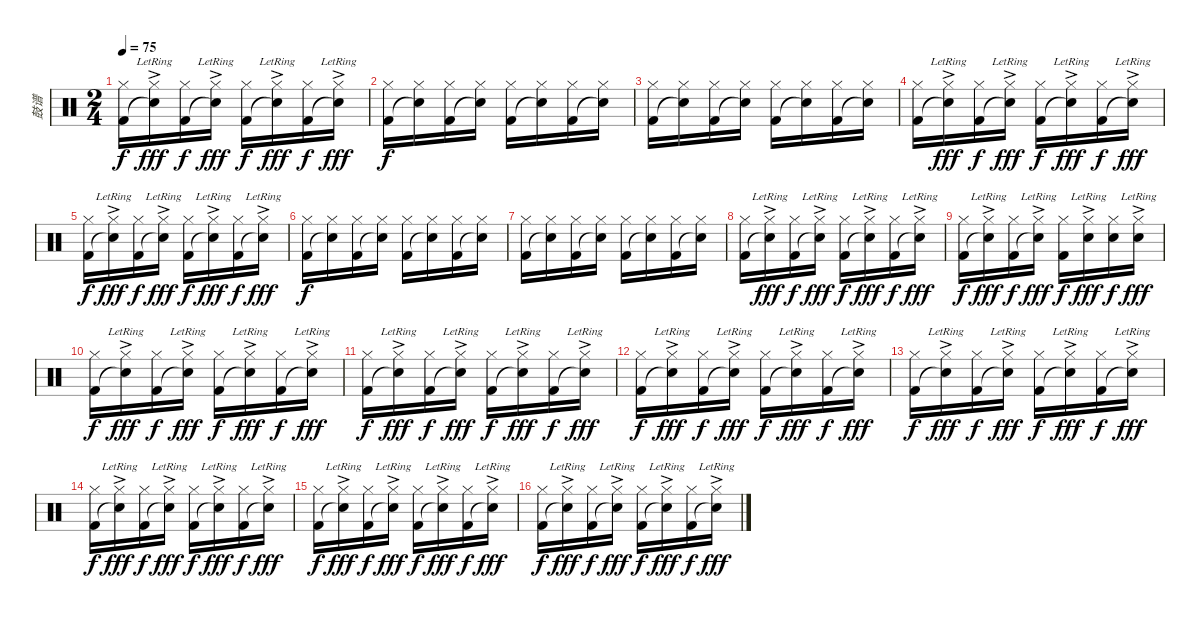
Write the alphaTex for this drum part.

\track ("鼓谱" "鼓谱") {instrument percussion}
\staff {score}
\articulation defaults
\ts (2 4)
\tempo 75
\clef neutral
\ks c
("Kick (hit) 2" "Hi-Hat (closed)").16{dy f} ("Snare (hit)"{t} "Hi-Hat (closed)"{ac lr}).16{dy fff} ("Kick (hit) 2" "Hi-Hat (closed)").16{dy f} ("Snare (hit)"{t} "Hi-Hat (closed)"{ac lr}).16{dy fff} ("Kick (hit) 2" "Hi-Hat (closed)").16{dy f} ("Snare (hit)"{t} "Hi-Hat (closed)"{ac lr}).16{dy fff} ("Kick (hit) 2" "Hi-Hat (closed)").16{dy f} ("Snare (hit)"{t} "Hi-Hat (closed)"{ac lr}).16{dy fff} |
("Kick (hit) 2" "Hi-Hat (closed)").16{dy f volume 12} ("Snare (hit)"{t} "Hi-Hat (closed)").16 ("Kick (hit) 2" "Hi-Hat (closed)").16 ("Snare (hit)"{t} "Hi-Hat (closed)").16 ("Kick (hit) 2" "Hi-Hat (closed)").16 ("Snare (hit)"{t} "Hi-Hat (closed)").16 ("Kick (hit) 2" "Hi-Hat (closed)").16 ("Snare (hit)"{t} "Hi-Hat (closed)").16 |
("Kick (hit) 2" "Hi-Hat (closed)").16 ("Snare (hit)"{t} "Hi-Hat (closed)").16 ("Kick (hit) 2" "Hi-Hat (closed)").16 ("Snare (hit)"{t} "Hi-Hat (closed)").16 ("Kick (hit) 2" "Hi-Hat (closed)").16 ("Snare (hit)"{t} "Hi-Hat (closed)").16 ("Kick (hit) 2" "Hi-Hat (closed)").16 ("Snare (hit)"{t} "Hi-Hat (closed)").16 |
("Kick (hit) 2" "Hi-Hat (closed)").16 ("Snare (hit)"{t} "Hi-Hat (closed)"{ac lr}).16{dy fff} ("Kick (hit) 2" "Hi-Hat (closed)").16{dy f} ("Snare (hit)"{t} "Hi-Hat (closed)"{ac lr}).16{dy fff} ("Kick (hit) 2" "Hi-Hat (closed)").16{dy f} ("Snare (hit)"{t} "Hi-Hat (closed)"{ac lr}).16{dy fff} ("Kick (hit) 2" "Hi-Hat (closed)").16{dy f} ("Snare (hit)"{t} "Hi-Hat (closed)"{ac lr}).16{dy fff} |
("Kick (hit) 2" "Hi-Hat (closed)").16{dy f} ("Snare (hit)"{t} "Hi-Hat (closed)"{ac lr}).16{dy fff} ("Kick (hit) 2" "Hi-Hat (closed)").16{dy f} ("Snare (hit)"{t} "Hi-Hat (closed)"{ac lr}).16{dy fff} ("Kick (hit) 2" "Hi-Hat (closed)").16{dy f} ("Snare (hit)"{t} "Hi-Hat (closed)"{ac lr}).16{dy fff} ("Kick (hit) 2" "Hi-Hat (closed)").16{dy f} ("Snare (hit)"{t} "Hi-Hat (closed)"{ac lr}).16{dy fff} |
("Kick (hit) 2" "Hi-Hat (closed)").16{dy f volume 12} ("Snare (hit)"{t} "Hi-Hat (closed)").16 ("Kick (hit) 2" "Hi-Hat (closed)").16 ("Snare (hit)"{t} "Hi-Hat (closed)").16 ("Kick (hit) 2" "Hi-Hat (closed)").16 ("Snare (hit)"{t} "Hi-Hat (closed)").16 ("Kick (hit) 2" "Hi-Hat (closed)").16 ("Snare (hit)"{t} "Hi-Hat (closed)").16 |
("Kick (hit) 2" "Hi-Hat (closed)").16 ("Snare (hit)"{t} "Hi-Hat (closed)").16 ("Kick (hit) 2" "Hi-Hat (closed)").16 ("Snare (hit)"{t} "Hi-Hat (closed)").16 ("Kick (hit) 2" "Hi-Hat (closed)").16 ("Snare (hit)"{t} "Hi-Hat (closed)").16 ("Kick (hit) 2" "Hi-Hat (closed)").16 ("Snare (hit)"{t} "Hi-Hat (closed)").16 |
("Kick (hit) 2" "Hi-Hat (closed)").16 ("Snare (hit)"{t} "Hi-Hat (closed)"{ac lr}).16{dy fff} ("Kick (hit) 2" "Hi-Hat (closed)").16{dy f} ("Snare (hit)"{t} "Hi-Hat (closed)"{ac lr}).16{dy fff} ("Kick (hit) 2" "Hi-Hat (closed)").16{dy f} ("Snare (hit)"{t} "Hi-Hat (closed)"{ac lr}).16{dy fff} ("Kick (hit) 2" "Hi-Hat (closed)").16{dy f} ("Snare (hit)"{t} "Hi-Hat (closed)"{ac lr}).16{dy fff} |
("Kick (hit) 2" "Hi-Hat (closed)").16{dy f} ("Snare (hit)"{t} "Hi-Hat (closed)"{ac lr}).16{dy fff} ("Kick (hit) 2" "Hi-Hat (closed)").16{dy f} ("Snare (hit)"{t} "Hi-Hat (closed)"{ac lr}).16{dy fff} ("Kick (hit) 2" "Hi-Hat (closed)").16{dy f} ("Electric Snare (hit)" "Hi-Hat (closed)"{ac lr}).16{dy fff} ("Electric Snare (hit)" "Hi-Hat (closed)").16{dy f volume 14} ("Electric Snare (hit)" "Hi-Hat (closed)"{ac lr}).16{dy fff volume 16} |
("Kick (hit) 2" "Hi-Hat (closed)").16{dy f} ("Snare (hit)"{t} "Hi-Hat (closed)"{ac lr}).16{dy fff} ("Kick (hit) 2" "Hi-Hat (closed)").16{dy f} ("Snare (hit)"{t} "Hi-Hat (closed)"{ac lr}).16{dy fff} ("Kick (hit) 2" "Hi-Hat (closed)").16{dy f} ("Snare (hit)"{t} "Hi-Hat (closed)"{ac lr}).16{dy fff} ("Kick (hit) 2" "Hi-Hat (closed)").16{dy f} ("Snare (hit)"{t} "Hi-Hat (closed)"{ac lr}).16{dy fff} |
("Kick (hit) 2" "Hi-Hat (closed)").16{dy f} ("Snare (hit)"{t} "Hi-Hat (closed)"{ac lr}).16{dy fff} ("Kick (hit) 2" "Hi-Hat (closed)").16{dy f} ("Snare (hit)"{t} "Hi-Hat (closed)"{ac lr}).16{dy fff} ("Kick (hit) 2" "Hi-Hat (closed)").16{dy f} ("Snare (hit)"{t} "Hi-Hat (closed)"{ac lr}).16{dy fff} ("Kick (hit) 2" "Hi-Hat (closed)").16{dy f} ("Snare (hit)"{t} "Hi-Hat (closed)"{ac lr}).16{dy fff} |
("Kick (hit) 2" "Hi-Hat (closed)").16{dy f} ("Snare (hit)"{t} "Hi-Hat (closed)"{ac lr}).16{dy fff} ("Kick (hit) 2" "Hi-Hat (closed)").16{dy f} ("Snare (hit)"{t} "Hi-Hat (closed)"{ac lr}).16{dy fff} ("Kick (hit) 2" "Hi-Hat (closed)").16{dy f} ("Snare (hit)"{t} "Hi-Hat (closed)"{ac lr}).16{dy fff} ("Kick (hit) 2" "Hi-Hat (closed)").16{dy f} ("Snare (hit)"{t} "Hi-Hat (closed)"{ac lr}).16{dy fff} |
("Kick (hit) 2" "Hi-Hat (closed)").16{dy f} ("Snare (hit)"{t} "Hi-Hat (closed)"{ac lr}).16{dy fff} ("Kick (hit) 2" "Hi-Hat (closed)").16{dy f} ("Snare (hit)"{t} "Hi-Hat (closed)"{ac lr}).16{dy fff} ("Kick (hit) 2" "Hi-Hat (closed)").16{dy f} ("Snare (hit)"{t} "Hi-Hat (closed)"{ac lr}).16{dy fff} ("Kick (hit) 2" "Hi-Hat (closed)").16{dy f} ("Snare (hit)"{t} "Hi-Hat (closed)"{ac lr}).16{dy fff} |
("Kick (hit) 2" "Hi-Hat (closed)").16{dy f} ("Snare (hit)"{t} "Hi-Hat (closed)"{ac lr}).16{dy fff} ("Kick (hit) 2" "Hi-Hat (closed)").16{dy f} ("Snare (hit)"{t} "Hi-Hat (closed)"{ac lr}).16{dy fff} ("Kick (hit) 2" "Hi-Hat (closed)").16{dy f} ("Snare (hit)"{t} "Hi-Hat (closed)"{ac lr}).16{dy fff} ("Kick (hit) 2" "Hi-Hat (closed)").16{dy f} ("Snare (hit)"{t} "Hi-Hat (closed)"{ac lr}).16{dy fff} |
("Kick (hit) 2" "Hi-Hat (closed)").16{dy f} ("Snare (hit)"{t} "Hi-Hat (closed)"{ac lr}).16{dy fff} ("Kick (hit) 2" "Hi-Hat (closed)").16{dy f} ("Snare (hit)"{t} "Hi-Hat (closed)"{ac lr}).16{dy fff} ("Kick (hit) 2" "Hi-Hat (closed)").16{dy f} ("Snare (hit)"{t} "Hi-Hat (closed)"{ac lr}).16{dy fff} ("Kick (hit) 2" "Hi-Hat (closed)").16{dy f} ("Snare (hit)"{t} "Hi-Hat (closed)"{ac lr}).16{dy fff} |
("Kick (hit) 2" "Hi-Hat (closed)").16{dy f} ("Snare (hit)"{t} "Hi-Hat (closed)"{ac lr}).16{dy fff} ("Kick (hit) 2" "Hi-Hat (closed)").16{dy f} ("Snare (hit)"{t} "Hi-Hat (closed)"{ac lr}).16{dy fff} ("Kick (hit) 2" "Hi-Hat (closed)").16{dy f} ("Snare (hit)"{t} "Hi-Hat (closed)"{ac lr}).16{dy fff} ("Kick (hit) 2" "Hi-Hat (closed)").16{dy f} ("Snare (hit)"{t} "Hi-Hat (closed)"{ac lr}).16{dy fff}
